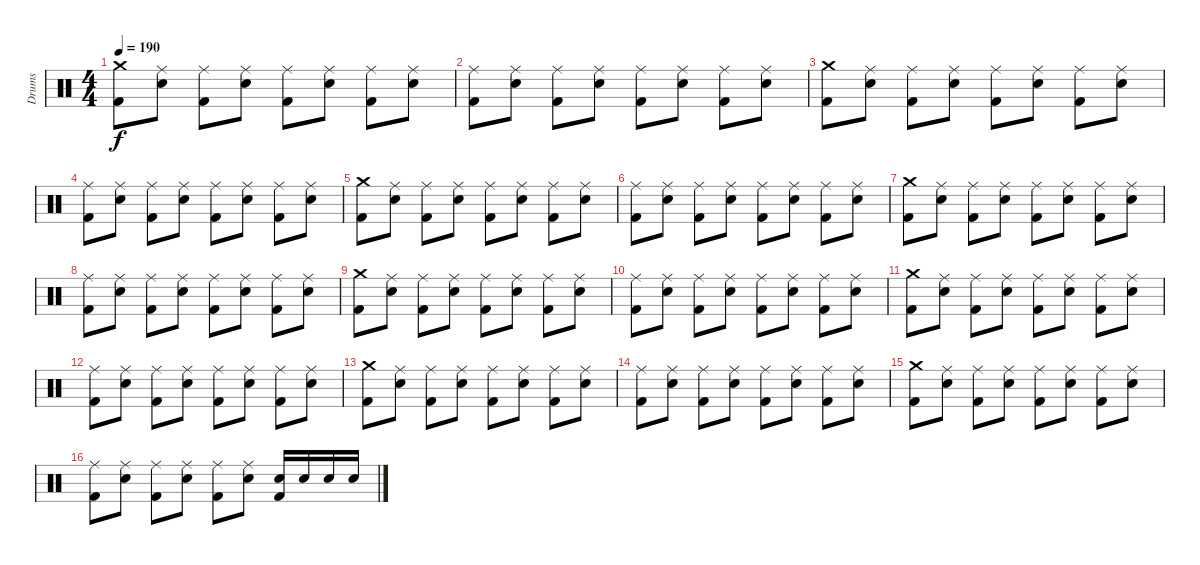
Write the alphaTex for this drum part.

\track ("Drums" "Drums") {instrument percussion}
\staff {score}
\articulation defaults
\ts (4 4)
\tempo 190
\clef neutral
\ks c
("Kick (hit) 2" "Crash medium (hit)").8{dy f} ("Electric Snare (hit)" "Ride (middle)").8 ("Kick (hit) 2" "Ride (middle)").8 ("Electric Snare (hit)" "Ride (middle)").8 ("Kick (hit) 2" "Ride (middle)").8 ("Electric Snare (hit)" "Ride (middle)").8 ("Kick (hit) 2" "Ride (middle)").8 ("Electric Snare (hit)" "Ride (middle)").8 |
("Kick (hit) 2" "Ride (middle)").8 ("Electric Snare (hit)" "Ride (middle)").8 ("Kick (hit) 2" "Ride (middle)").8 ("Electric Snare (hit)" "Ride (middle)").8 ("Kick (hit) 2" "Ride (middle)").8 ("Electric Snare (hit)" "Ride (middle)").8 ("Kick (hit) 2" "Ride (middle)").8 ("Electric Snare (hit)" "Ride (middle)").8 |
("Kick (hit) 2" "Crash medium (hit)").8 ("Electric Snare (hit)" "Ride (middle)").8 ("Kick (hit) 2" "Ride (middle)").8 ("Electric Snare (hit)" "Ride (middle)").8 ("Kick (hit) 2" "Ride (middle)").8 ("Electric Snare (hit)" "Ride (middle)").8 ("Kick (hit) 2" "Ride (middle)").8 ("Electric Snare (hit)" "Ride (middle)").8 |
("Kick (hit) 2" "Ride (middle)").8 ("Electric Snare (hit)" "Ride (middle)").8 ("Kick (hit) 2" "Ride (middle)").8 ("Electric Snare (hit)" "Ride (middle)").8 ("Kick (hit) 2" "Ride (middle)").8 ("Electric Snare (hit)" "Ride (middle)").8 ("Kick (hit) 2" "Ride (middle)").8 ("Electric Snare (hit)" "Ride (middle)").8 |
("Kick (hit) 2" "Crash medium (hit)").8 ("Electric Snare (hit)" "Ride (middle)").8 ("Kick (hit) 2" "Ride (middle)").8 ("Electric Snare (hit)" "Ride (middle)").8 ("Kick (hit) 2" "Ride (middle)").8 ("Electric Snare (hit)" "Ride (middle)").8 ("Kick (hit) 2" "Ride (middle)").8 ("Electric Snare (hit)" "Ride (middle)").8 |
("Kick (hit) 2" "Ride (middle)").8 ("Electric Snare (hit)" "Ride (middle)").8 ("Kick (hit) 2" "Ride (middle)").8 ("Electric Snare (hit)" "Ride (middle)").8 ("Kick (hit) 2" "Ride (middle)").8 ("Electric Snare (hit)" "Ride (middle)").8 ("Kick (hit) 2" "Ride (middle)").8 ("Electric Snare (hit)" "Ride (middle)").8 |
("Kick (hit) 2" "Crash medium (hit)").8 ("Electric Snare (hit)" "Ride (middle)").8 ("Kick (hit) 2" "Ride (middle)").8 ("Electric Snare (hit)" "Ride (middle)").8 ("Kick (hit) 2" "Ride (middle)").8 ("Electric Snare (hit)" "Ride (middle)").8 ("Kick (hit) 2" "Ride (middle)").8 ("Electric Snare (hit)" "Ride (middle)").8 |
("Kick (hit) 2" "Ride (middle)").8 ("Electric Snare (hit)" "Ride (middle)").8 ("Kick (hit) 2" "Ride (middle)").8 ("Electric Snare (hit)" "Ride (middle)").8 ("Kick (hit) 2" "Ride (middle)").8 ("Electric Snare (hit)" "Ride (middle)").8 ("Kick (hit) 2" "Ride (middle)").8 ("Electric Snare (hit)" "Ride (middle)").8 |
("Kick (hit) 2" "Crash medium (hit)").8 ("Electric Snare (hit)" "Ride (middle)").8 ("Kick (hit) 2" "Ride (middle)").8 ("Electric Snare (hit)" "Ride (middle)").8 ("Kick (hit) 2" "Ride (middle)").8 ("Electric Snare (hit)" "Ride (middle)").8 ("Kick (hit) 2" "Ride (middle)").8 ("Electric Snare (hit)" "Ride (middle)").8 |
("Kick (hit) 2" "Ride (middle)").8 ("Electric Snare (hit)" "Ride (middle)").8 ("Kick (hit) 2" "Ride (middle)").8 ("Electric Snare (hit)" "Ride (middle)").8 ("Kick (hit) 2" "Ride (middle)").8 ("Electric Snare (hit)" "Ride (middle)").8 ("Kick (hit) 2" "Ride (middle)").8 ("Electric Snare (hit)" "Ride (middle)").8 |
("Kick (hit) 2" "Crash medium (hit)").8 ("Electric Snare (hit)" "Ride (middle)").8 ("Kick (hit) 2" "Ride (middle)").8 ("Electric Snare (hit)" "Ride (middle)").8 ("Kick (hit) 2" "Ride (middle)").8 ("Electric Snare (hit)" "Ride (middle)").8 ("Kick (hit) 2" "Ride (middle)").8 ("Electric Snare (hit)" "Ride (middle)").8 |
("Kick (hit) 2" "Ride (middle)").8 ("Electric Snare (hit)" "Ride (middle)").8 ("Kick (hit) 2" "Ride (middle)").8 ("Electric Snare (hit)" "Ride (middle)").8 ("Kick (hit) 2" "Ride (middle)").8 ("Electric Snare (hit)" "Ride (middle)").8 ("Kick (hit) 2" "Ride (middle)").8 ("Electric Snare (hit)" "Ride (middle)").8 |
("Kick (hit) 2" "Crash medium (hit)").8 ("Electric Snare (hit)" "Ride (middle)").8 ("Kick (hit) 2" "Ride (middle)").8 ("Electric Snare (hit)" "Ride (middle)").8 ("Kick (hit) 2" "Ride (middle)").8 ("Electric Snare (hit)" "Ride (middle)").8 ("Kick (hit) 2" "Ride (middle)").8 ("Electric Snare (hit)" "Ride (middle)").8 |
("Kick (hit) 2" "Ride (middle)").8 ("Electric Snare (hit)" "Ride (middle)").8 ("Kick (hit) 2" "Ride (middle)").8 ("Electric Snare (hit)" "Ride (middle)").8 ("Kick (hit) 2" "Ride (middle)").8 ("Electric Snare (hit)" "Ride (middle)").8 ("Kick (hit) 2" "Ride (middle)").8 ("Electric Snare (hit)" "Ride (middle)").8 |
("Kick (hit) 2" "Crash medium (hit)").8 ("Electric Snare (hit)" "Ride (middle)").8 ("Kick (hit) 2" "Ride (middle)").8 ("Electric Snare (hit)" "Ride (middle)").8 ("Kick (hit) 2" "Ride (middle)").8 ("Electric Snare (hit)" "Ride (middle)").8 ("Kick (hit) 2" "Ride (middle)").8 ("Electric Snare (hit)" "Ride (middle)").8 |
("Kick (hit) 2" "Ride (middle)").8 ("Electric Snare (hit)" "Ride (middle)").8 ("Kick (hit) 2" "Ride (middle)").8 ("Electric Snare (hit)" "Ride (middle)").8 ("Kick (hit) 2" "Ride (middle)").8 ("Electric Snare (hit)" "Ride (middle)").8 ("Electric Snare (hit)" "Kick (hit) 2").16 "Electric Snare (hit)".16 "Electric Snare (hit)".16 "Electric Snare (hit)".16
